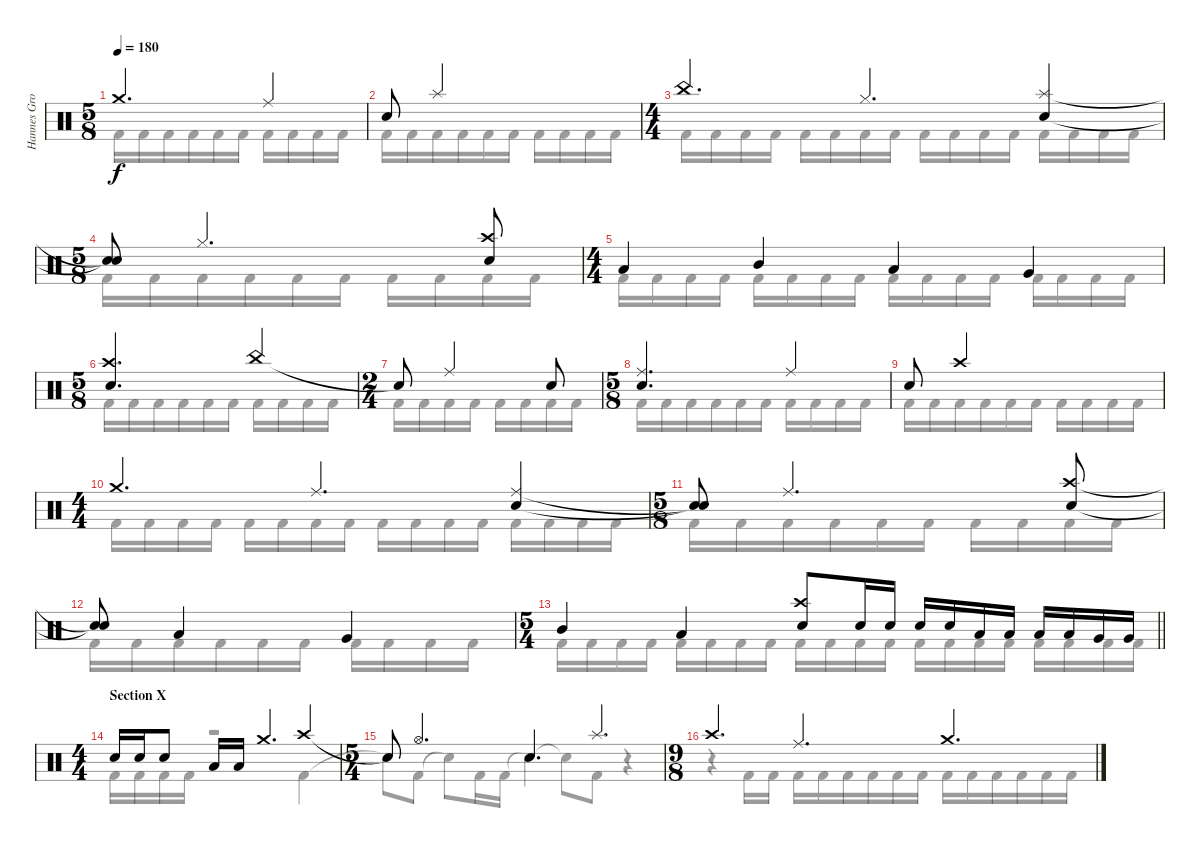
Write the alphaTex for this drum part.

\track ("Hannes Grossman" "Hannes Gro") {instrument percussion}
\staff {score}
\articulation defaults
\voice
\ts (5 8)
\tempo 180
\clef neutral
\ks c "Crash medium (hit)".4{d dy f} "Ride (middle)".4
|
"Electric Snare (hit)".8 "Splash (hit)".2 |
\ts (4 4)
"China (hit)".4{d} "Hi-Hat (closed)".4{d} ("Splash (hit)" "Electric Snare (hit)").4 |
\ts (5 8)
("Snare (hit)"{t} "Snare (hit)"{t}).8 "Hi-Hat (closed)".4{d} ("Crash high (hit)" "Electric Snare (hit)").8 |
\ts (4 4)
"Low Tom (hit)".4 "Mid Tom (hit)".4 "Low Tom (hit)".4 "Very Low Tom (hit)".4 |
\ts (5 8)
("Crash high (hit)" "Electric Snare (hit)").4{d} "China (hit)".4 |
\ts (2 4)
"Snare (hit)"{t}.8 "Ride (middle)".4 "Electric Snare (hit)".8 |
\ts (5 8)
("Electric Snare (hit)" "Ride (middle)").4{d} "Ride (middle)".4 |
"Electric Snare (hit)".8 "Crash high (hit)".2 |
\ts (4 4)
"Crash medium (hit)".4{d} "Ride (middle)".4{d} ("Ride (middle)" "Electric Snare (hit)").4 |
\ts (5 8)
("Snare (hit)"{t} "Snare (hit)"{t}).8 "Ride (middle)".4{d} ("Crash high (hit)" "Electric Snare (hit)").8 |
("Snare (hit)"{t} "Snare (hit)"{t}).8 "Low Tom (hit)".4 "Very Low Tom (hit)".4 |
\ts (5 4)
\barLineRight lightlight "Mid Tom (hit)".4 "Low Tom (hit)".4
("Electric Snare (hit)" "Crash high (hit)").8 "Electric Snare (hit)".16 "Electric Snare (hit)".16 "Electric Snare (hit)".16 "Electric Snare (hit)".16 "Low Tom (hit)".16 "Low Tom (hit)".16 "Low Tom (hit)".16 "Low Tom (hit)".16 "Very Low Tom (hit)".16 "Very Low Tom (hit)".16 |
\ts (4 4)
\section ("" "Section X")
"Electric Snare (hit)".16 "Electric Snare (hit)".16 "Electric Snare (hit)".8 "Low Tom (hit)".16 "Low Tom (hit)".16 "Crash medium (hit)".4{d} "Crash high (hit)".4 |
\ts (5 4)
"Snare (hit)"{t}.8 "Hi-Hat (open)".4{d} "Electric Snare (hit)".4{d} "Splash (hit)".4{d} |
\ts (9 8)
"Crash high (hit)".4{d} "Ride (middle)".4{d} "Crash medium (hit)".4{d}
\voice
\clef neutral
\ottava regular
\simile none
\ks c "Kick (hit) 2".16{dy f} "Kick (hit) 2".16 "Kick (hit) 2".16 "Kick (hit) 2".16 "Kick (hit) 2".16 "Kick (hit) 2".16 "Kick (hit) 2".16 "Kick (hit) 2".16 "Kick (hit) 2".16 "Kick (hit) 2".16
|
"Kick (hit) 2".16 "Kick (hit) 2".16 "Kick (hit) 2".16 "Kick (hit) 2".16 "Kick (hit) 2".16 "Kick (hit) 2".16 "Kick (hit) 2".16 "Kick (hit) 2".16 "Kick (hit) 2".16 "Kick (hit) 2".16 |
"Kick (hit) 2".16 "Kick (hit) 2".16 "Kick (hit) 2".16 "Kick (hit) 2".16 "Kick (hit) 2".16 "Kick (hit) 2".16 "Kick (hit) 2".16 "Kick (hit) 2".16 "Kick (hit) 2".16 "Kick (hit) 2".16 "Kick (hit) 2".16 "Kick (hit) 2".16 "Kick (hit) 2".16 "Kick (hit) 2".16 "Kick (hit) 2".16 "Kick (hit) 2".16 |
"Kick (hit) 2".16 "Kick (hit) 2".16 "Kick (hit) 2".16 "Kick (hit) 2".16 "Kick (hit) 2".16 "Kick (hit) 2".16 "Kick (hit) 2".16 "Kick (hit) 2".16 "Kick (hit) 2".16 "Kick (hit) 2".16 |
"Kick (hit) 2".16 "Kick (hit) 2".16 "Kick (hit) 2".16 "Kick (hit) 2".16 "Kick (hit) 2".16 "Kick (hit) 2".16 "Kick (hit) 2".16 "Kick (hit) 2".16 "Kick (hit) 2".16 "Kick (hit) 2".16 "Kick (hit) 2".16 "Kick (hit) 2".16 "Kick (hit) 2".16 "Kick (hit) 2".16 "Kick (hit) 2".16 "Kick (hit) 2".16 |
"Kick (hit) 2".16 "Kick (hit) 2".16 "Kick (hit) 2".16 "Kick (hit) 2".16 "Kick (hit) 2".16 "Kick (hit) 2".16 "Kick (hit) 2".16 "Kick (hit) 2".16 "Kick (hit) 2".16 "Kick (hit) 2".16 |
"Kick (hit) 2".16 "Kick (hit) 2".16 "Kick (hit) 2".16 "Kick (hit) 2".16 "Kick (hit) 2".16 "Kick (hit) 2".16 "Kick (hit) 2".16 "Kick (hit) 2".16 |
"Kick (hit) 2".16 "Kick (hit) 2".16 "Kick (hit) 2".16 "Kick (hit) 2".16 "Kick (hit) 2".16 "Kick (hit) 2".16 "Kick (hit) 2".16 "Kick (hit) 2".16 "Kick (hit) 2".16 "Kick (hit) 2".16 |
"Kick (hit) 2".16 "Kick (hit) 2".16 "Kick (hit) 2".16 "Kick (hit) 2".16 "Kick (hit) 2".16 "Kick (hit) 2".16 "Kick (hit) 2".16 "Kick (hit) 2".16 "Kick (hit) 2".16 "Kick (hit) 2".16 |
"Kick (hit) 2".16 "Kick (hit) 2".16 "Kick (hit) 2".16 "Kick (hit) 2".16 "Kick (hit) 2".16 "Kick (hit) 2".16 "Kick (hit) 2".16 "Kick (hit) 2".16 "Kick (hit) 2".16 "Kick (hit) 2".16 "Kick (hit) 2".16 "Kick (hit) 2".16 "Kick (hit) 2".16 "Kick (hit) 2".16 "Kick (hit) 2".16 "Kick (hit) 2".16 |
"Kick (hit) 2".16 "Kick (hit) 2".16 "Kick (hit) 2".16 "Kick (hit) 2".16 "Kick (hit) 2".16 "Kick (hit) 2".16 "Kick (hit) 2".16 "Kick (hit) 2".16 "Kick (hit) 2".16 "Kick (hit) 2".16 |
"Kick (hit) 2".16 "Kick (hit) 2".16 "Kick (hit) 2".16 "Kick (hit) 2".16 "Kick (hit) 2".16 "Kick (hit) 2".16 "Kick (hit) 2".16 "Kick (hit) 2".16 "Kick (hit) 2".16 "Kick (hit) 2".16 |
\barLineRight lightlight "Kick (hit) 2".16 "Kick (hit) 2".16 "Kick (hit) 2".16 "Kick (hit) 2".16 "Kick (hit) 2".16 "Kick (hit) 2".16 "Kick (hit) 2".16 "Kick (hit) 2".16 "Kick (hit) 2".16 "Kick (hit) 2".16 "Kick (hit) 2".16 "Kick (hit) 2".16 "Kick (hit) 2".16 "Kick (hit) 2".16 "Kick (hit) 2".16 "Kick (hit) 2".16 "Kick (hit) 2".16 "Kick (hit) 2".16 "Kick (hit) 2".16 "Kick (hit) 2".16
|
"Kick (hit) 2".16 "Kick (hit) 2".16 "Kick (hit) 2".16 "Kick (hit) 2".16 r.2 "Kick (hit) 2".4 |
"Snare (hit)"{t}.8 "Kick (hit) 2".8 "Snare (hit)"{t}.8 "Kick (hit) 2".16 "Kick (hit) 2".16 "Snare (hit)"{t}.4 "Snare (hit)"{t}.8 "Kick (hit) 2".8 r.4 |
r.4 "Kick (hit) 2".16 "Kick (hit) 2".16 "Kick (hit) 2".16 "Kick (hit) 2".16 "Kick (hit) 2".16 "Kick (hit) 2".16 "Kick (hit) 2".16 "Kick (hit) 2".16 "Kick (hit) 2".16 "Kick (hit) 2".16 "Kick (hit) 2".16 "Kick (hit) 2".16 "Kick (hit) 2".16 "Kick (hit) 2".16
